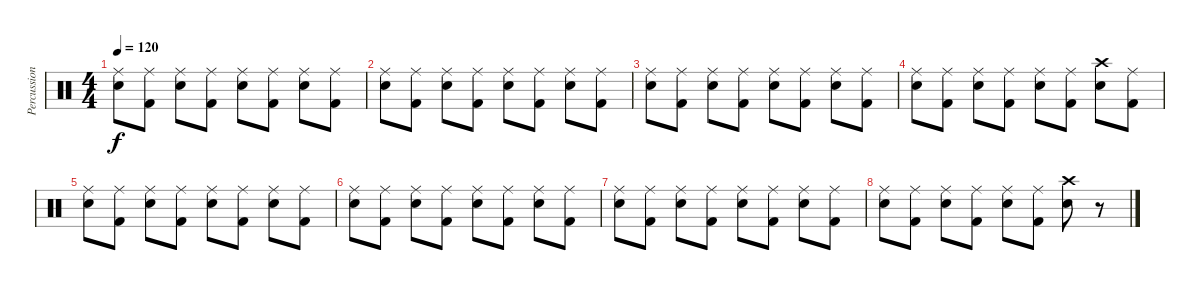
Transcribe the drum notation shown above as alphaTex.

\track ("Percussions" "Percussion") {instrument percussion}
\staff {score}
\articulation defaults
\ts (4 4)
\tempo 120
\clef neutral
\ks c
("Ride (middle)" "Snare (hit) 2").8{dy f} ("Ride (middle)" "Kick (hit) 2").8 ("Ride (middle)" "Snare (hit) 2").8 ("Ride (middle)" "Kick (hit) 2").8 ("Ride (middle)" "Snare (hit) 2").8 ("Ride (middle)" "Kick (hit) 2").8 ("Ride (middle)" "Snare (hit) 2").8 ("Ride (middle)" "Kick (hit) 2").8 |
("Ride (middle)" "Snare (hit) 2").8 ("Ride (middle)" "Kick (hit) 2").8 ("Ride (middle)" "Snare (hit) 2").8 ("Ride (middle)" "Kick (hit) 2").8 ("Ride (middle)" "Snare (hit) 2").8 ("Ride (middle)" "Kick (hit) 2").8 ("Ride (middle)" "Snare (hit) 2").8 ("Ride (middle)" "Kick (hit) 2").8 |
("Ride (middle)" "Snare (hit) 2").8 ("Ride (middle)" "Kick (hit) 2").8 ("Ride (middle)" "Snare (hit) 2").8 ("Ride (middle)" "Kick (hit) 2").8 ("Ride (middle)" "Snare (hit) 2").8 ("Ride (middle)" "Kick (hit) 2").8 ("Ride (middle)" "Snare (hit) 2").8 ("Ride (middle)" "Kick (hit) 2").8 |
("Ride (middle)" "Snare (hit) 2").8 ("Ride (middle)" "Kick (hit) 2").8 ("Ride (middle)" "Snare (hit) 2").8 ("Ride (middle)" "Kick (hit) 2").8 ("Ride (middle)" "Snare (hit) 2").8 ("Ride (middle)" "Kick (hit) 2").8 ("Crash high (hit)" "Snare (hit) 2").8 ("Ride (middle)" "Kick (hit) 2").8 |
("Ride (middle)" "Snare (hit) 2").8 ("Ride (middle)" "Kick (hit) 2").8 ("Ride (middle)" "Snare (hit) 2").8 ("Ride (middle)" "Kick (hit) 2").8 ("Ride (middle)" "Snare (hit) 2").8 ("Ride (middle)" "Kick (hit) 2").8 ("Ride (middle)" "Snare (hit) 2").8 ("Ride (middle)" "Kick (hit) 2").8 |
("Ride (middle)" "Snare (hit) 2").8 ("Ride (middle)" "Kick (hit) 2").8 ("Ride (middle)" "Snare (hit) 2").8 ("Ride (middle)" "Kick (hit) 2").8 ("Ride (middle)" "Snare (hit) 2").8 ("Ride (middle)" "Kick (hit) 2").8 ("Ride (middle)" "Snare (hit) 2").8 ("Ride (middle)" "Kick (hit) 2").8 |
("Ride (middle)" "Snare (hit) 2").8 ("Ride (middle)" "Kick (hit) 2").8 ("Ride (middle)" "Snare (hit) 2").8 ("Ride (middle)" "Kick (hit) 2").8 ("Ride (middle)" "Snare (hit) 2").8 ("Ride (middle)" "Kick (hit) 2").8 ("Ride (middle)" "Snare (hit) 2").8 ("Ride (middle)" "Kick (hit) 2").8 |
("Ride (middle)" "Snare (hit) 2").8 ("Ride (middle)" "Kick (hit) 2").8 ("Ride (middle)" "Snare (hit) 2").8 ("Ride (middle)" "Kick (hit) 2").8 ("Ride (middle)" "Snare (hit) 2").8 ("Ride (middle)" "Kick (hit) 2").8 ("Crash high (hit)" "Snare (hit) 2").8 r.8
